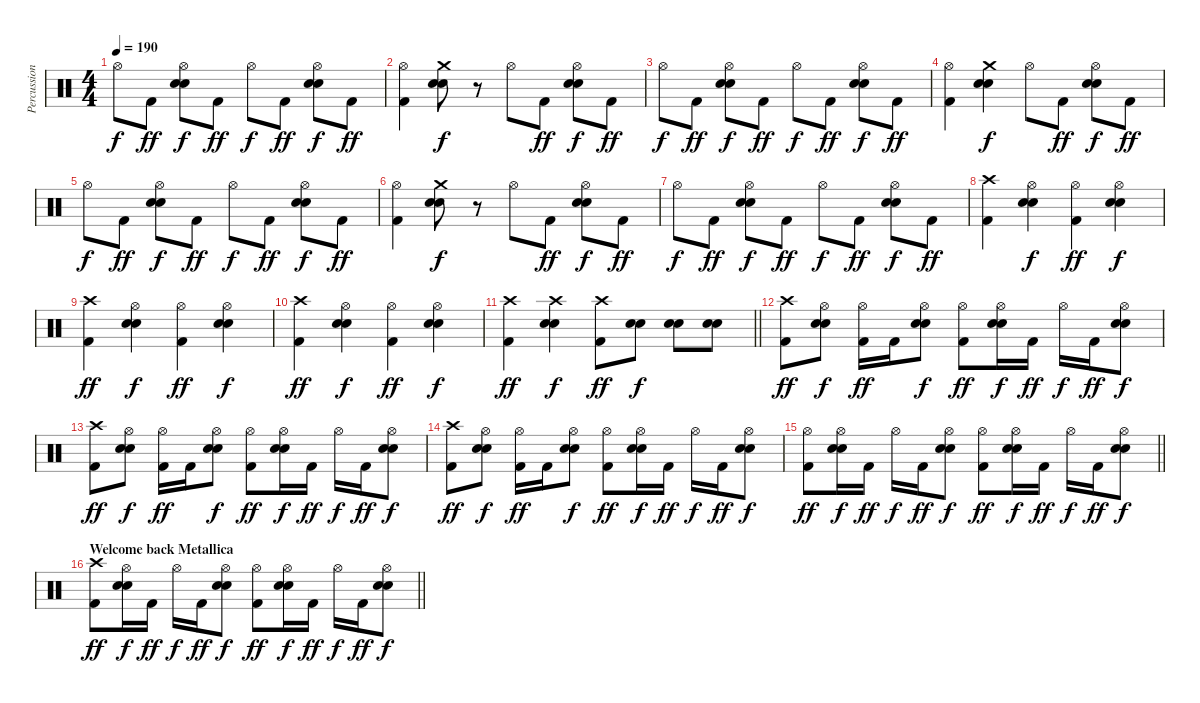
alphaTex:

\track ("Percussion" "Percussion") {instrument percussion}
\staff {score}
\articulation defaults
\ts (4 4)
\tempo 190
\clef neutral
\ks c "Hi-Hat (open)".8{dy f} "Kick (hit) 2".8{dy ff}
("Hi-Hat (open)" "Electric Snare (hit)" "Snare (hit) 2").8{dy f} "Kick (hit) 2".8{dy ff} "Hi-Hat (open)".8{dy f} "Kick (hit) 2".8{dy ff} ("Hi-Hat (open)" "Electric Snare (hit)" "Snare (hit) 2").8{dy f} "Kick (hit) 2".8{dy ff} |
("Hi-Hat (open)" "Kick (hit) 2").4 ("Crash medium (hit)" "Electric Snare (hit)" "Snare (hit) 2").8{dy f} r.8 "Hi-Hat (open)".8 "Kick (hit) 2".8{dy ff} ("Hi-Hat (open)" "Electric Snare (hit)" "Snare (hit) 2").8{dy f} "Kick (hit) 2".8{dy ff} |
"Hi-Hat (open)".8{dy f} "Kick (hit) 2".8{dy ff} ("Hi-Hat (open)" "Electric Snare (hit)" "Snare (hit) 2").8{dy f} "Kick (hit) 2".8{dy ff} "Hi-Hat (open)".8{dy f} "Kick (hit) 2".8{dy ff} ("Hi-Hat (open)" "Electric Snare (hit)" "Snare (hit) 2").8{dy f} "Kick (hit) 2".8{dy ff} |
("Hi-Hat (open)" "Kick (hit) 2").4 ("Crash medium (hit)" "Electric Snare (hit)" "Snare (hit) 2").4{dy f} "Hi-Hat (open)".8 "Kick (hit) 2".8{dy ff} ("Hi-Hat (open)" "Electric Snare (hit)" "Snare (hit) 2").8{dy f} "Kick (hit) 2".8{dy ff} |
"Hi-Hat (open)".8{dy f} "Kick (hit) 2".8{dy ff} ("Hi-Hat (open)" "Electric Snare (hit)" "Snare (hit) 2").8{dy f} "Kick (hit) 2".8{dy ff} "Hi-Hat (open)".8{dy f} "Kick (hit) 2".8{dy ff} ("Hi-Hat (open)" "Electric Snare (hit)" "Snare (hit) 2").8{dy f} "Kick (hit) 2".8{dy ff} |
("Hi-Hat (open)" "Kick (hit) 2").4 ("Crash medium (hit)" "Electric Snare (hit)" "Snare (hit) 2").8{dy f} r.8 "Hi-Hat (open)".8 "Kick (hit) 2".8{dy ff} ("Hi-Hat (open)" "Electric Snare (hit)" "Snare (hit) 2").8{dy f} "Kick (hit) 2".8{dy ff} |
"Hi-Hat (open)".8{dy f} "Kick (hit) 2".8{dy ff} ("Hi-Hat (open)" "Electric Snare (hit)" "Snare (hit) 2").8{dy f} "Kick (hit) 2".8{dy ff} "Hi-Hat (open)".8{dy f} "Kick (hit) 2".8{dy ff} ("Hi-Hat (open)" "Electric Snare (hit)" "Snare (hit) 2").8{dy f} "Kick (hit) 2".8{dy ff} |
("Crash high (hit)" "Kick (hit) 2").4 ("Hi-Hat (open)" "Electric Snare (hit)" "Snare (hit) 2").4{dy f} ("Hi-Hat (open)" "Kick (hit) 2").4{dy ff} ("Hi-Hat (open)" "Electric Snare (hit)" "Snare (hit) 2").4{dy f} |
("Crash high (hit)" "Kick (hit) 2").4{dy ff} ("Hi-Hat (open)" "Electric Snare (hit)" "Snare (hit) 2").4{dy f} ("Hi-Hat (open)" "Kick (hit) 2").4{dy ff} ("Hi-Hat (open)" "Electric Snare (hit)" "Snare (hit) 2").4{dy f} |
("Crash high (hit)" "Kick (hit) 2").4{dy ff} ("Hi-Hat (open)" "Electric Snare (hit)" "Snare (hit) 2").4{dy f} ("Hi-Hat (open)" "Kick (hit) 2").4{dy ff} ("Hi-Hat (open)" "Electric Snare (hit)" "Snare (hit) 2").4{dy f} |
\barLineRight lightlight
("Crash high (hit)" "Kick (hit) 2").4{dy ff} ("Crash high (hit)" "Electric Snare (hit)" "Snare (hit) 2").4{dy f} ("Crash high (hit)" "Kick (hit) 2").8{dy ff} ("Electric Snare (hit)" "Snare (hit) 2").8{dy f} ("Electric Snare (hit)" "Snare (hit) 2").8 ("Electric Snare (hit)" "Snare (hit) 2").8 |
\section ("" "")
("Crash high (hit)" "Kick (hit) 2").8{dy ff} ("Hi-Hat (open)" "Electric Snare (hit)" "Snare (hit) 2").8{dy f} ("Hi-Hat (open)" "Kick (hit) 2").16{dy ff} "Kick (hit) 2".16 ("Hi-Hat (open)" "Electric Snare (hit)" "Snare (hit) 2").8{dy f} ("Hi-Hat (open)" "Kick (hit) 2").8{dy ff} ("Hi-Hat (open)" "Electric Snare (hit)" "Snare (hit) 2").16{dy f} "Kick (hit) 2".16{dy ff} "Hi-Hat (open)".16{dy f} "Kick (hit) 2".16{dy ff} ("Hi-Hat (open)" "Electric Snare (hit)" "Snare (hit) 2").8{dy f} |
("Crash high (hit)" "Kick (hit) 2").8{dy ff} ("Hi-Hat (open)" "Electric Snare (hit)" "Snare (hit) 2").8{dy f} ("Hi-Hat (open)" "Kick (hit) 2").16{dy ff} "Kick (hit) 2".16 ("Hi-Hat (open)" "Electric Snare (hit)" "Snare (hit) 2").8{dy f} ("Hi-Hat (open)" "Kick (hit) 2").8{dy ff} ("Hi-Hat (open)" "Electric Snare (hit)" "Snare (hit) 2").16{dy f} "Kick (hit) 2".16{dy ff} "Hi-Hat (open)".16{dy f} "Kick (hit) 2".16{dy ff} ("Hi-Hat (open)" "Electric Snare (hit)" "Snare (hit) 2").8{dy f} |
("Crash high (hit)" "Kick (hit) 2").8{dy ff} ("Hi-Hat (open)" "Electric Snare (hit)" "Snare (hit) 2").8{dy f} ("Hi-Hat (open)" "Kick (hit) 2").16{dy ff} "Kick (hit) 2".16 ("Hi-Hat (open)" "Electric Snare (hit)" "Snare (hit) 2").8{dy f} ("Hi-Hat (open)" "Kick (hit) 2").8{dy ff} ("Hi-Hat (open)" "Electric Snare (hit)" "Snare (hit) 2").16{dy f} "Kick (hit) 2".16{dy ff} "Hi-Hat (open)".16{dy f} "Kick (hit) 2".16{dy ff} ("Hi-Hat (open)" "Electric Snare (hit)" "Snare (hit) 2").8{dy f} |
\barLineRight lightlight
("Hi-Hat (open)" "Kick (hit) 2").8{dy ff} ("Hi-Hat (open)" "Electric Snare (hit)" "Snare (hit) 2").16{dy f} "Kick (hit) 2".16{dy ff} "Hi-Hat (open)".16{dy f} "Kick (hit) 2".16{dy ff} ("Hi-Hat (open)" "Electric Snare (hit)" "Snare (hit) 2").8{dy f} ("Hi-Hat (open)" "Kick (hit) 2").8{dy ff} ("Hi-Hat (open)" "Electric Snare (hit)" "Snare (hit) 2").16{dy f} "Kick (hit) 2".16{dy ff} "Hi-Hat (open)".16{dy f} "Kick (hit) 2".16{dy ff} ("Hi-Hat (open)" "Electric Snare (hit)" "Snare (hit) 2").8{dy f} |
\section ("" "Welcome back Metallica")
\barLineRight lightlight
("Crash high (hit)" "Kick (hit) 2").8{dy ff} ("Hi-Hat (open)" "Electric Snare (hit)" "Snare (hit) 2").16{dy f} "Kick (hit) 2".16{dy ff} "Hi-Hat (open)".16{dy f} "Kick (hit) 2".16{dy ff} ("Hi-Hat (open)" "Electric Snare (hit)" "Snare (hit) 2").8{dy f} ("Hi-Hat (open)" "Kick (hit) 2").8{dy ff} ("Hi-Hat (open)" "Electric Snare (hit)" "Snare (hit) 2").16{dy f} "Kick (hit) 2".16{dy ff} "Hi-Hat (open)".16{dy f} "Kick (hit) 2".16{dy ff} ("Hi-Hat (open)" "Electric Snare (hit)" "Snare (hit) 2").8{dy f}
